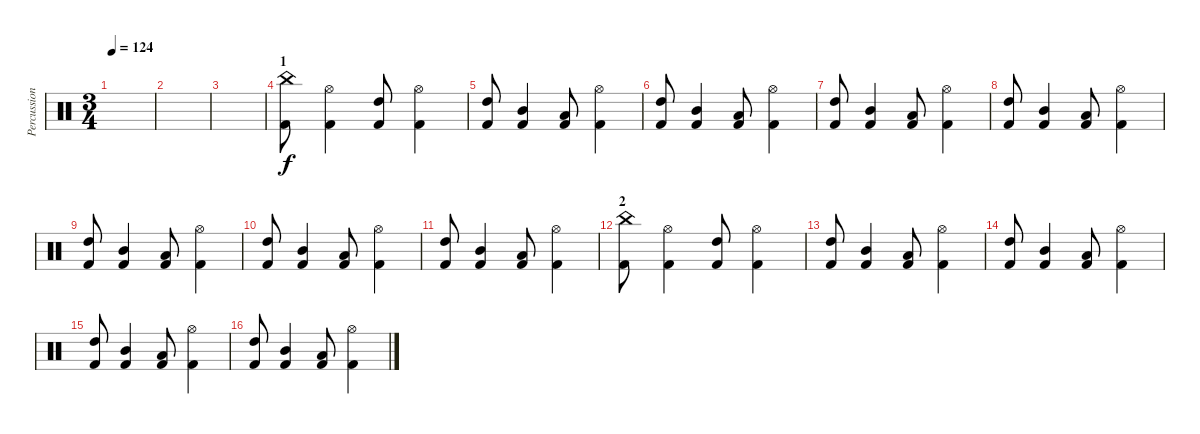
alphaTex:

\track ("Percussion" "Percussion") {instrument percussion}
\staff {score}
\articulation defaults
\ts (3 4)
\tempo 124
\clef neutral
\ks c
|
|
|
\section ("" "1")
("China (hit)" "Kick (hit) 2").8 ("Hi-Hat (open)" "Kick (hit) 2").4 ("High Tom (hit)" "Kick (hit) 2").8 ("Hi-Hat (open)" "Kick (hit) 2").4 |
("High Tom (hit)" "Kick (hit) 2").8 ("Mid Tom (hit)" "Kick (hit) 2").4 ("Low Tom (hit)" "Kick (hit) 2").8 ("Hi-Hat (open)" "Kick (hit) 2").4 |
("High Tom (hit)" "Kick (hit) 2").8 ("Mid Tom (hit)" "Kick (hit) 2").4 ("Low Tom (hit)" "Kick (hit) 2").8 ("Hi-Hat (open)" "Kick (hit) 2").4 |
("High Tom (hit)" "Kick (hit) 2").8 ("Mid Tom (hit)" "Kick (hit) 2").4 ("Low Tom (hit)" "Kick (hit) 2").8 ("Hi-Hat (open)" "Kick (hit) 2").4 |
("High Tom (hit)" "Kick (hit) 2").8 ("Mid Tom (hit)" "Kick (hit) 2").4 ("Low Tom (hit)" "Kick (hit) 2").8 ("Hi-Hat (open)" "Kick (hit) 2").4 |
("High Tom (hit)" "Kick (hit) 2").8 ("Mid Tom (hit)" "Kick (hit) 2").4 ("Low Tom (hit)" "Kick (hit) 2").8 ("Hi-Hat (open)" "Kick (hit) 2").4 |
("High Tom (hit)" "Kick (hit) 2").8 ("Mid Tom (hit)" "Kick (hit) 2").4 ("Low Tom (hit)" "Kick (hit) 2").8 ("Hi-Hat (open)" "Kick (hit) 2").4 |
("High Tom (hit)" "Kick (hit) 2").8 ("Mid Tom (hit)" "Kick (hit) 2").4 ("Low Tom (hit)" "Kick (hit) 2").8 ("Hi-Hat (open)" "Kick (hit) 2").4 |
\section ("" "2")
("China (hit)" "Kick (hit) 2").8 ("Hi-Hat (open)" "Kick (hit) 2").4 ("High Tom (hit)" "Kick (hit) 2").8 ("Hi-Hat (open)" "Kick (hit) 2").4 |
("High Tom (hit)" "Kick (hit) 2").8 ("Mid Tom (hit)" "Kick (hit) 2").4 ("Low Tom (hit)" "Kick (hit) 2").8 ("Hi-Hat (open)" "Kick (hit) 2").4 |
("High Tom (hit)" "Kick (hit) 2").8 ("Mid Tom (hit)" "Kick (hit) 2").4 ("Low Tom (hit)" "Kick (hit) 2").8 ("Hi-Hat (open)" "Kick (hit) 2").4 |
("High Tom (hit)" "Kick (hit) 2").8 ("Mid Tom (hit)" "Kick (hit) 2").4 ("Low Tom (hit)" "Kick (hit) 2").8 ("Hi-Hat (open)" "Kick (hit) 2").4 |
("High Tom (hit)" "Kick (hit) 2").8 ("Mid Tom (hit)" "Kick (hit) 2").4 ("Low Tom (hit)" "Kick (hit) 2").8 ("Hi-Hat (open)" "Kick (hit) 2").4
